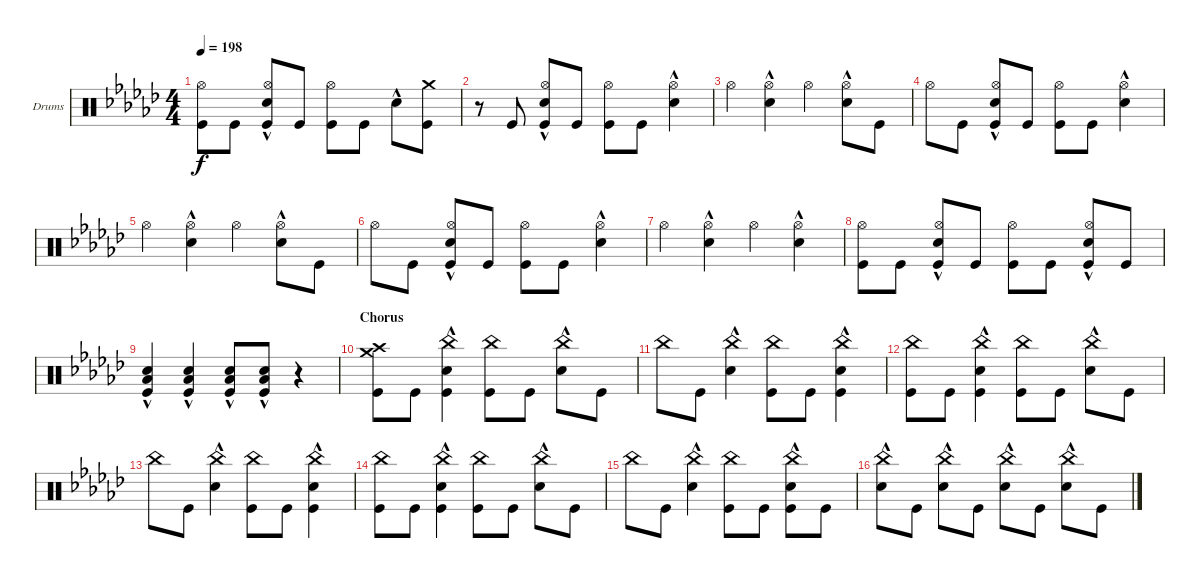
\bracketExtendMode groupsimilarinstruments
\firstSystemTrackNameOrientation horizontal
\otherSystemsTrackNameOrientation horizontal
\track ("Drumkit" "Drums") {instrument percussion}
\staff {score}
\articulation defaults
\ts (4 4)
\tempo 198
\clef neutral
\ks ebminor
("Kick (hit)" "Hi-Hat (open)").8{dy f} "Kick (hit)".8 ("Kick (hit)" "Hi-Hat (open)" "Snare (hit) 2"{hac}).8 "Kick (hit)".8 ("Kick (hit)" "Hi-Hat (open)").8 "Kick (hit)".8 "Snare (hit) 2"{hac}.8 ("Kick (hit)" "Crash medium (hit)").8 |
r.8 "Kick (hit)".8 ("Hi-Hat (open)" "Snare (hit) 2"{hac} "Kick (hit)").8 "Kick (hit)".8 ("Hi-Hat (open)" "Kick (hit)").8 "Kick (hit)".8 ("Snare (hit) 2"{hac} "Hi-Hat (open)").4 |
"Hi-Hat (open)".4 ("Snare (hit) 2"{hac} "Hi-Hat (open)").4 "Hi-Hat (open)".4 ("Snare (hit) 2"{hac} "Hi-Hat (open)").8 "Kick (hit)".8 |
"Hi-Hat (open)".8 "Kick (hit)".8 ("Hi-Hat (open)" "Snare (hit) 2"{hac} "Kick (hit)").8 "Kick (hit)".8 ("Hi-Hat (open)" "Kick (hit)").8 "Kick (hit)".8 ("Snare (hit) 2"{hac} "Hi-Hat (open)").4 |
"Hi-Hat (open)".4 ("Snare (hit) 2"{hac} "Hi-Hat (open)").4 "Hi-Hat (open)".4 ("Snare (hit) 2"{hac} "Hi-Hat (open)").8 "Kick (hit)".8 |
"Hi-Hat (open)".8 "Kick (hit)".8 ("Hi-Hat (open)" "Snare (hit) 2"{hac} "Kick (hit)").8 "Kick (hit)".8 ("Hi-Hat (open)" "Kick (hit)").8 "Kick (hit)".8 ("Snare (hit) 2"{hac} "Hi-Hat (open)").4 |
"Hi-Hat (open)".4 ("Snare (hit) 2"{hac} "Hi-Hat (open)").4 "Hi-Hat (open)".4 ("Snare (hit) 2"{hac} "Hi-Hat (open)").4 |
("Kick (hit)" "Hi-Hat (open)").8 "Kick (hit)".8 ("Kick (hit)" "Hi-Hat (open)" "Snare (hit) 2"{hac}).8 "Kick (hit)".8 ("Kick (hit)" "Hi-Hat (open)").8 "Kick (hit)".8 ("Kick (hit)" "Hi-Hat (open)" "Snare (hit) 2"{hac}).8 "Kick (hit)".8 |
("Kick (hit)" "Snare (hit) 2"{hac} "Low Tom (hit)"{hac}).4 ("Kick (hit)" "Snare (hit) 2"{hac} "Low Tom (hit)"{hac}).4 ("Kick (hit)" "Snare (hit) 2"{hac} "Low Tom (hit)"{hac}).8 ("Kick (hit)" "Snare (hit) 2"{hac} "Low Tom (hit)"{hac}).8 r.4 |
\section ("" "Chorus")
("Kick (hit)" "Crash medium (hit)" "Crash high (hit)").8 "Kick (hit)".8 ("Kick (hit)" "Snare (hit) 2"{hac} "China (hit)").4 ("Kick (hit)" "China (hit)").8 "Kick (hit)".8 ("Snare (hit) 2"{hac} "China (hit)").8 "Kick (hit)".8 |
"China (hit)".8 "Kick (hit)".8 ("Snare (hit) 2"{hac} "China (hit)").4 ("Kick (hit)" "China (hit)").8 "Kick (hit)".8 ("Kick (hit)" "China (hit)" "Snare (hit) 2"{hac}).4 |
("Kick (hit)" "China (hit)").8 "Kick (hit)".8 ("Kick (hit)" "Snare (hit) 2"{hac} "China (hit)").4 ("Kick (hit)" "China (hit)").8 "Kick (hit)".8 ("Snare (hit) 2"{hac} "China (hit)").8 "Kick (hit)".8 |
"China (hit)".8 "Kick (hit)".8 ("Snare (hit) 2"{hac} "China (hit)").4 ("Kick (hit)" "China (hit)").8 "Kick (hit)".8 ("Kick (hit)" "China (hit)" "Snare (hit) 2"{hac}).4 |
("Kick (hit)" "China (hit)").8 "Kick (hit)".8 ("Kick (hit)" "Snare (hit) 2"{hac} "China (hit)").4 ("Kick (hit)" "China (hit)").8 "Kick (hit)".8 ("Snare (hit) 2"{hac} "China (hit)").8 "Kick (hit)".8 |
"China (hit)".8 "Kick (hit)".8 ("Snare (hit) 2"{hac} "China (hit)").4 ("Kick (hit)" "China (hit)").8 "Kick (hit)".8 ("China (hit)" "Snare (hit) 2"{hac} "Kick (hit)").8 "Kick (hit)".8 |
("Snare (hit) 2"{hac} "China (hit)").8 "Kick (hit)".8 ("Snare (hit) 2"{hac} "China (hit)").8 "Kick (hit)".8 ("Snare (hit) 2"{hac} "China (hit)").8 "Kick (hit)".8 ("Snare (hit) 2"{hac} "China (hit)").8 "Kick (hit)".8
